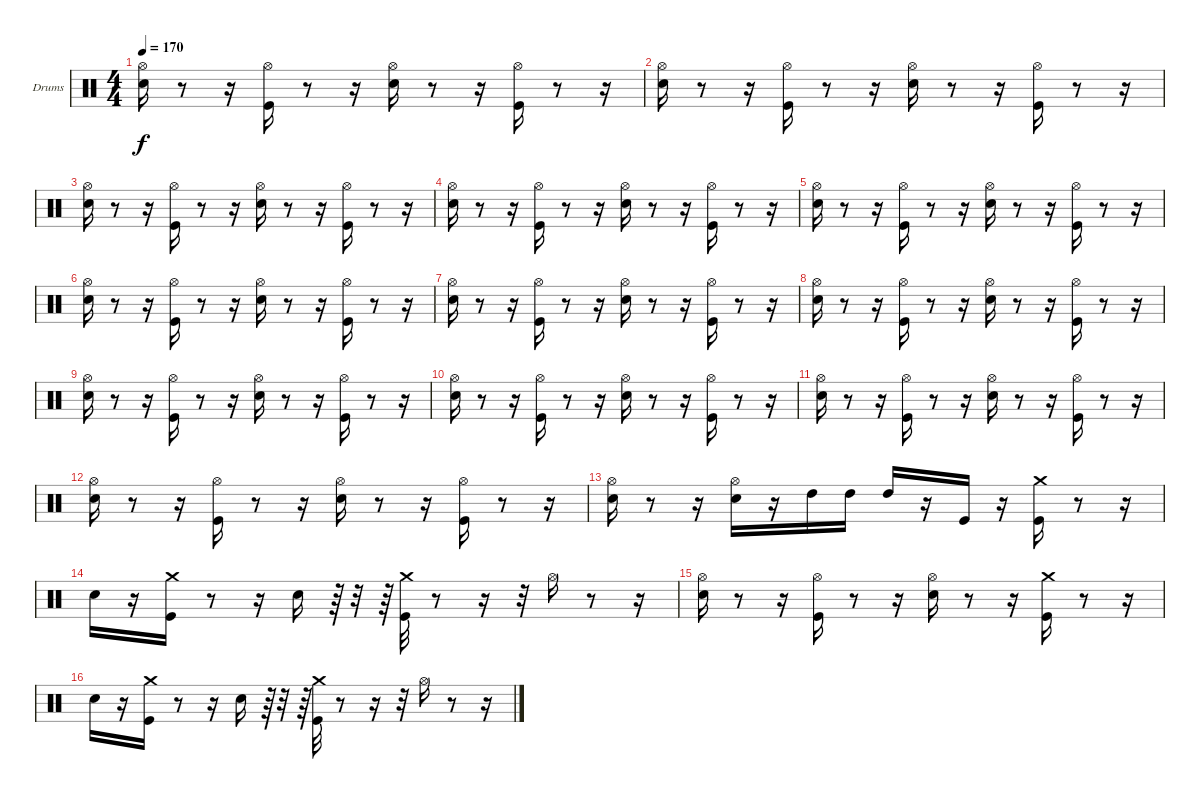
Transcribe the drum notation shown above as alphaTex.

\bracketExtendMode groupsimilarinstruments
\firstSystemTrackNameOrientation horizontal
\otherSystemsTrackNameOrientation horizontal
\track ("Thomas" "Drums") {instrument percussion}
\staff {score}
\articulation defaults
\ts (4 4)
\tempo 170
\clef neutral
\ks c
("Snare (hit) 2" "Hi-Hat (open)").16{dy f} r.8 r.16 ("Kick (hit)" "Hi-Hat (open)").16 r.8 r.16 ("Snare (hit) 2" "Hi-Hat (open)").16 r.8 r.16 ("Kick (hit)" "Hi-Hat (open)").16 r.8 r.16 |
("Hi-Hat (open)" "Snare (hit) 2").16 r.8 r.16 ("Kick (hit)" "Hi-Hat (open)").16 r.8 r.16 ("Snare (hit) 2" "Hi-Hat (open)").16 r.8 r.16 ("Kick (hit)" "Hi-Hat (open)").16 r.8 r.16 |
("Snare (hit) 2" "Hi-Hat (open)").16 r.8 r.16 ("Kick (hit)" "Hi-Hat (open)").16 r.8 r.16 ("Snare (hit) 2" "Hi-Hat (open)").16 r.8 r.16 ("Kick (hit)" "Hi-Hat (open)").16 r.8 r.16 |
("Hi-Hat (open)" "Snare (hit) 2").16 r.8 r.16 ("Kick (hit)" "Hi-Hat (open)").16 r.8 r.16 ("Snare (hit) 2" "Hi-Hat (open)").16 r.8 r.16 ("Kick (hit)" "Hi-Hat (open)").16 r.8 r.16 |
("Snare (hit) 2" "Hi-Hat (open)").16 r.8 r.16 ("Kick (hit)" "Hi-Hat (open)").16 r.8 r.16 ("Snare (hit) 2" "Hi-Hat (open)").16 r.8 r.16 ("Kick (hit)" "Hi-Hat (open)").16 r.8 r.16 |
("Hi-Hat (open)" "Snare (hit) 2").16 r.8 r.16 ("Kick (hit)" "Hi-Hat (open)").16 r.8 r.16 ("Snare (hit) 2" "Hi-Hat (open)").16 r.8 r.16 ("Kick (hit)" "Hi-Hat (open)").16 r.8 r.16 |
("Snare (hit) 2" "Hi-Hat (open)").16 r.8 r.16 ("Kick (hit)" "Hi-Hat (open)").16 r.8 r.16 ("Snare (hit) 2" "Hi-Hat (open)").16 r.8 r.16 ("Kick (hit)" "Hi-Hat (open)").16 r.8 r.16 |
("Hi-Hat (open)" "Snare (hit) 2").16 r.8 r.16 ("Kick (hit)" "Hi-Hat (open)").16 r.8 r.16 ("Snare (hit) 2" "Hi-Hat (open)").16 r.8 r.16 ("Kick (hit)" "Hi-Hat (open)").16 r.8 r.16 |
("Snare (hit) 2" "Hi-Hat (open)").16 r.8 r.16 ("Kick (hit)" "Hi-Hat (open)").16 r.8 r.16 ("Snare (hit) 2" "Hi-Hat (open)").16 r.8 r.16 ("Kick (hit)" "Hi-Hat (open)").16 r.8 r.16 |
("Hi-Hat (open)" "Snare (hit) 2").16 r.8 r.16 ("Kick (hit)" "Hi-Hat (open)").16 r.8 r.16 ("Snare (hit) 2" "Hi-Hat (open)").16 r.8 r.16 ("Kick (hit)" "Hi-Hat (open)").16 r.8 r.16 |
("Snare (hit) 2" "Hi-Hat (open)").16 r.8 r.16 ("Kick (hit)" "Hi-Hat (open)").16 r.8 r.16 ("Snare (hit) 2" "Hi-Hat (open)").16 r.8 r.16 ("Kick (hit)" "Hi-Hat (open)").16 r.8 r.16 |
("Hi-Hat (open)" "Snare (hit) 2").16 r.8 r.16 ("Kick (hit)" "Hi-Hat (open)").16 r.8 r.16 ("Snare (hit) 2" "Hi-Hat (open)").16 r.8 r.16 ("Kick (hit)" "Hi-Hat (open)").16 r.8 r.16 |
("Snare (hit) 2" "Hi-Hat (open)").16 r.8 r.16 ("Hi-Hat (open)" "Snare (hit) 2").16 r.16 "High Tom (hit)".16 "High Tom (hit)".16 "High Tom (hit)".16 r.16 "Kick (hit)".16 r.16 ("Kick (hit)" "Crash medium (hit)").16 r.8 r.16 |
"Snare (hit) 2".16 r.16 ("Kick (hit)" "Crash medium (hit)").16 r.8 r.16 "Snare (hit) 2".16 r.64 r.32 r.64 ("Kick (hit)" "Crash medium (hit)").32 r.8 r.16 r.32 "Hi-Hat (open)".16 r.8 r.16 |
("Hi-Hat (open)" "Snare (hit) 2").16 r.8 r.16 ("Hi-Hat (open)" "Kick (hit)").16 r.8 r.16 ("Hi-Hat (open)" "Snare (hit) 2").16 r.8 r.16 ("Kick (hit)" "Crash medium (hit)").16 r.8 r.16 |
"Snare (hit) 2".16 r.16 ("Kick (hit)" "Crash medium (hit)").16 r.8 r.16 "Snare (hit) 2".16 r.64 r.32 r.64 ("Kick (hit)" "Crash medium (hit)").32 r.8 r.16 r.32 "Hi-Hat (open)".16 r.8 r.16
